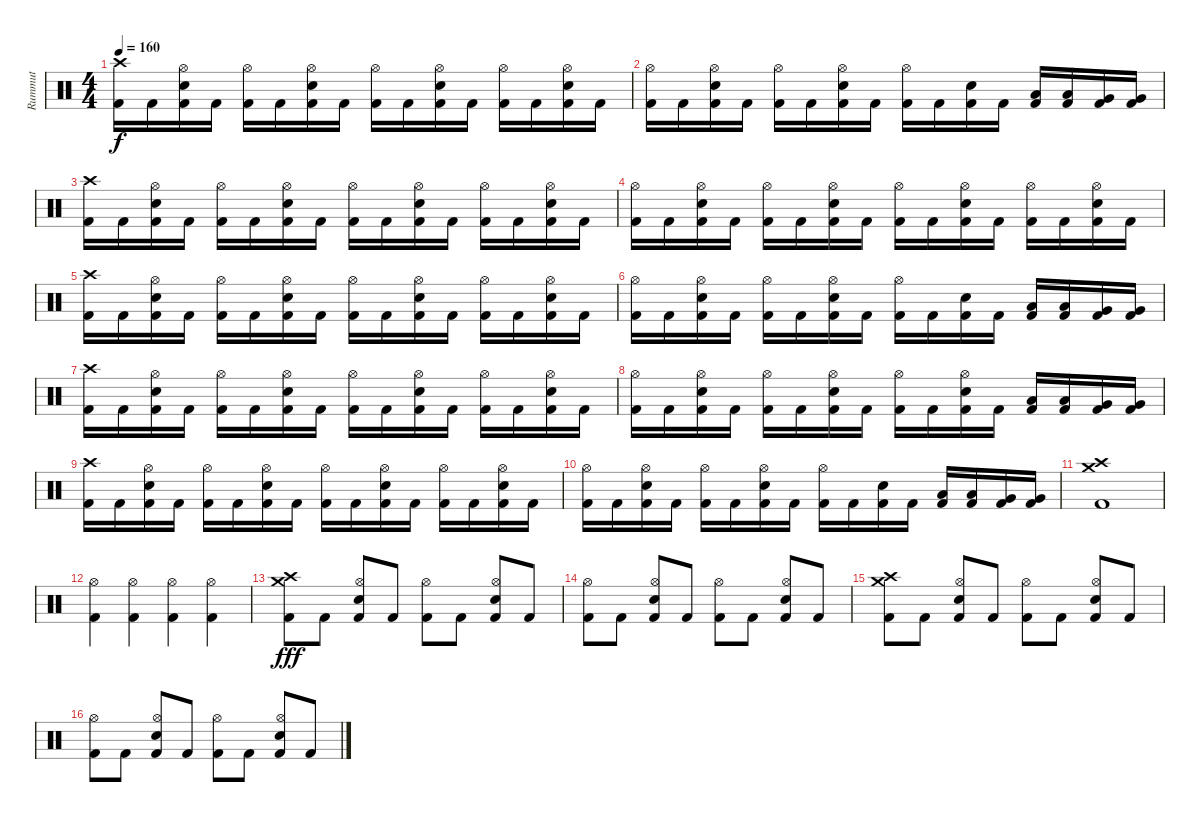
\track ("Rummut" "Rummut") {instrument percussion}
\staff {score}
\articulation defaults
\ts (4 4)
\tempo 160
\clef neutral
\ks c
("Crash high (hit)" "Kick (hit) 2").16{dy f} "Kick (hit) 2".16 ("Hi-Hat (open)" "Snare (hit) 2" "Kick (hit) 2").16 "Kick (hit) 2".16 ("Hi-Hat (open)" "Kick (hit) 2").16 "Kick (hit) 2".16 ("Hi-Hat (open)" "Snare (hit) 2" "Kick (hit) 2").16 "Kick (hit) 2".16 ("Hi-Hat (open)" "Kick (hit) 2").16 "Kick (hit) 2".16 ("Hi-Hat (open)" "Snare (hit) 2" "Kick (hit) 2").16 "Kick (hit) 2".16 ("Hi-Hat (open)" "Kick (hit) 2").16 "Kick (hit) 2".16 ("Hi-Hat (open)" "Snare (hit) 2" "Kick (hit) 2").16 "Kick (hit) 2".16 |
("Hi-Hat (open)" "Kick (hit) 2").16 "Kick (hit) 2".16 ("Hi-Hat (open)" "Snare (hit) 2" "Kick (hit) 2").16 "Kick (hit) 2".16 ("Hi-Hat (open)" "Kick (hit) 2").16 "Kick (hit) 2".16 ("Hi-Hat (open)" "Snare (hit) 2" "Kick (hit) 2").16 "Kick (hit) 2".16 ("Hi-Hat (open)" "Kick (hit) 2").16 "Kick (hit) 2".16 ("Snare (hit) 2" "Kick (hit) 2").16 "Kick (hit) 2".16 ("Low Tom (hit)" "Kick (hit) 2").16 ("Low Tom (hit)" "Kick (hit) 2").16 ("Very Low Tom (hit)" "Kick (hit) 2").16 ("Very Low Tom (hit)" "Kick (hit) 2").16 |
("Crash high (hit)" "Kick (hit) 2").16 "Kick (hit) 2".16 ("Hi-Hat (open)" "Snare (hit) 2" "Kick (hit) 2").16 "Kick (hit) 2".16 ("Hi-Hat (open)" "Kick (hit) 2").16 "Kick (hit) 2".16 ("Hi-Hat (open)" "Snare (hit) 2" "Kick (hit) 2").16 "Kick (hit) 2".16 ("Hi-Hat (open)" "Kick (hit) 2").16 "Kick (hit) 2".16 ("Hi-Hat (open)" "Snare (hit) 2" "Kick (hit) 2").16 "Kick (hit) 2".16 ("Hi-Hat (open)" "Kick (hit) 2").16 "Kick (hit) 2".16 ("Hi-Hat (open)" "Snare (hit) 2" "Kick (hit) 2").16 "Kick (hit) 2".16 |
("Hi-Hat (open)" "Kick (hit) 2").16 "Kick (hit) 2".16 ("Hi-Hat (open)" "Snare (hit) 2" "Kick (hit) 2").16 "Kick (hit) 2".16 ("Hi-Hat (open)" "Kick (hit) 2").16 "Kick (hit) 2".16 ("Hi-Hat (open)" "Snare (hit) 2" "Kick (hit) 2").16 "Kick (hit) 2".16 ("Hi-Hat (open)" "Kick (hit) 2").16 "Kick (hit) 2".16 ("Hi-Hat (open)" "Snare (hit) 2" "Kick (hit) 2").16 "Kick (hit) 2".16 ("Hi-Hat (open)" "Kick (hit) 2").16 "Kick (hit) 2".16 ("Hi-Hat (open)" "Snare (hit) 2" "Kick (hit) 2").16 "Kick (hit) 2".16 |
("Crash high (hit)" "Kick (hit) 2").16 "Kick (hit) 2".16 ("Hi-Hat (open)" "Snare (hit) 2" "Kick (hit) 2").16 "Kick (hit) 2".16 ("Hi-Hat (open)" "Kick (hit) 2").16 "Kick (hit) 2".16 ("Hi-Hat (open)" "Snare (hit) 2" "Kick (hit) 2").16 "Kick (hit) 2".16 ("Hi-Hat (open)" "Kick (hit) 2").16 "Kick (hit) 2".16 ("Hi-Hat (open)" "Snare (hit) 2" "Kick (hit) 2").16 "Kick (hit) 2".16 ("Hi-Hat (open)" "Kick (hit) 2").16 "Kick (hit) 2".16 ("Hi-Hat (open)" "Snare (hit) 2" "Kick (hit) 2").16 "Kick (hit) 2".16 |
("Hi-Hat (open)" "Kick (hit) 2").16 "Kick (hit) 2".16 ("Hi-Hat (open)" "Snare (hit) 2" "Kick (hit) 2").16 "Kick (hit) 2".16 ("Hi-Hat (open)" "Kick (hit) 2").16 "Kick (hit) 2".16 ("Hi-Hat (open)" "Snare (hit) 2" "Kick (hit) 2").16 "Kick (hit) 2".16 ("Hi-Hat (open)" "Kick (hit) 2").16 "Kick (hit) 2".16 ("Snare (hit) 2" "Kick (hit) 2").16 "Kick (hit) 2".16 ("Low Tom (hit)" "Kick (hit) 2").16 ("Low Tom (hit)" "Kick (hit) 2").16 ("Very Low Tom (hit)" "Kick (hit) 2").16 ("Very Low Tom (hit)" "Kick (hit) 2").16 |
("Crash high (hit)" "Kick (hit) 2").16 "Kick (hit) 2".16 ("Hi-Hat (open)" "Snare (hit) 2" "Kick (hit) 2").16 "Kick (hit) 2".16 ("Hi-Hat (open)" "Kick (hit) 2").16 "Kick (hit) 2".16 ("Hi-Hat (open)" "Snare (hit) 2" "Kick (hit) 2").16 "Kick (hit) 2".16 ("Hi-Hat (open)" "Kick (hit) 2").16 "Kick (hit) 2".16 ("Hi-Hat (open)" "Snare (hit) 2" "Kick (hit) 2").16 "Kick (hit) 2".16 ("Hi-Hat (open)" "Kick (hit) 2").16 "Kick (hit) 2".16 ("Hi-Hat (open)" "Snare (hit) 2" "Kick (hit) 2").16 "Kick (hit) 2".16 |
("Hi-Hat (open)" "Kick (hit) 2").16 "Kick (hit) 2".16 ("Hi-Hat (open)" "Snare (hit) 2" "Kick (hit) 2").16 "Kick (hit) 2".16 ("Hi-Hat (open)" "Kick (hit) 2").16 "Kick (hit) 2".16 ("Hi-Hat (open)" "Snare (hit) 2" "Kick (hit) 2").16 "Kick (hit) 2".16 ("Hi-Hat (open)" "Kick (hit) 2").16 "Kick (hit) 2".16 ("Hi-Hat (open)" "Snare (hit) 2" "Kick (hit) 2").16 "Kick (hit) 2".16 ("Low Tom (hit)" "Kick (hit) 2").16 ("Low Tom (hit)" "Kick (hit) 2").16 ("Very Low Tom (hit)" "Kick (hit) 2").16 ("Very Low Tom (hit)" "Kick (hit) 2").16 |
("Crash high (hit)" "Kick (hit) 2").16 "Kick (hit) 2".16 ("Hi-Hat (open)" "Snare (hit) 2" "Kick (hit) 2").16 "Kick (hit) 2".16 ("Hi-Hat (open)" "Kick (hit) 2").16 "Kick (hit) 2".16 ("Hi-Hat (open)" "Snare (hit) 2" "Kick (hit) 2").16 "Kick (hit) 2".16 ("Hi-Hat (open)" "Kick (hit) 2").16 "Kick (hit) 2".16 ("Hi-Hat (open)" "Snare (hit) 2" "Kick (hit) 2").16 "Kick (hit) 2".16 ("Hi-Hat (open)" "Kick (hit) 2").16 "Kick (hit) 2".16 ("Hi-Hat (open)" "Snare (hit) 2" "Kick (hit) 2").16 "Kick (hit) 2".16 |
("Hi-Hat (open)" "Kick (hit) 2").16 "Kick (hit) 2".16 ("Hi-Hat (open)" "Snare (hit) 2" "Kick (hit) 2").16 "Kick (hit) 2".16 ("Hi-Hat (open)" "Kick (hit) 2").16 "Kick (hit) 2".16 ("Hi-Hat (open)" "Snare (hit) 2" "Kick (hit) 2").16 "Kick (hit) 2".16 ("Hi-Hat (open)" "Kick (hit) 2").16 "Kick (hit) 2".16 ("Snare (hit) 2" "Kick (hit) 2").16 "Kick (hit) 2".16 ("Low Tom (hit)" "Kick (hit) 2").16 ("Low Tom (hit)" "Kick (hit) 2").16 ("Very Low Tom (hit)" "Kick (hit) 2").16 ("Very Low Tom (hit)" "Kick (hit) 2").16 |
("Crash medium (hit)" "Crash high (hit)" "Kick (hit) 2").1 |
("Hi-Hat (open)" "Kick (hit) 2").4 ("Hi-Hat (open)" "Kick (hit) 2").4 ("Hi-Hat (open)" "Kick (hit) 2").4 ("Hi-Hat (open)" "Kick (hit) 2").4 |
("Crash high (hit)" "Crash medium (hit)" "Kick (hit) 2").8{dy fff} "Kick (hit) 2".8 ("Hi-Hat (open)" "Electric Snare (hit)" "Kick (hit) 2").8 "Kick (hit) 2".8 ("Hi-Hat (open)" "Kick (hit) 2").8 "Kick (hit) 2".8 ("Hi-Hat (open)" "Electric Snare (hit)" "Kick (hit) 2").8 "Kick (hit) 2".8 |
("Hi-Hat (open)" "Kick (hit) 2").8 "Kick (hit) 2".8 ("Hi-Hat (open)" "Electric Snare (hit)" "Kick (hit) 2").8 "Kick (hit) 2".8 ("Hi-Hat (open)" "Kick (hit) 2").8 "Kick (hit) 2".8 ("Hi-Hat (open)" "Electric Snare (hit)" "Kick (hit) 2").8 "Kick (hit) 2".8 |
("Crash high (hit)" "Crash medium (hit)" "Kick (hit) 2").8 "Kick (hit) 2".8 ("Hi-Hat (open)" "Electric Snare (hit)" "Kick (hit) 2").8 "Kick (hit) 2".8 ("Hi-Hat (open)" "Kick (hit) 2").8 "Kick (hit) 2".8 ("Hi-Hat (open)" "Electric Snare (hit)" "Kick (hit) 2").8 "Kick (hit) 2".8 |
("Hi-Hat (open)" "Kick (hit) 2").8 "Kick (hit) 2".8 ("Hi-Hat (open)" "Electric Snare (hit)" "Kick (hit) 2").8 "Kick (hit) 2".8 ("Hi-Hat (open)" "Kick (hit) 2").8 "Kick (hit) 2".8 ("Hi-Hat (open)" "Electric Snare (hit)" "Kick (hit) 2").8 "Kick (hit) 2".8
